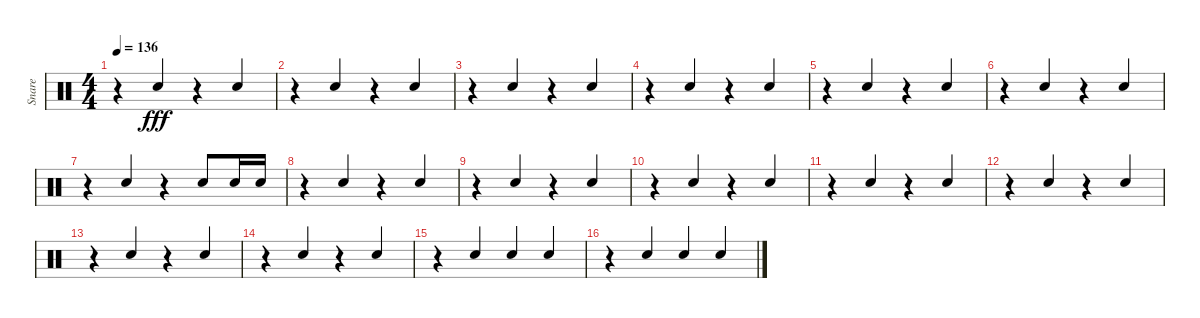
\track ("Snare" "Snare") {instrument percussion}
\staff {score}
\articulation defaults
\ts (4 4)
\tempo 136
\clef neutral
\ks c
r.4{dy fff} "Electric Snare (hit)".4{beam Up} r.4{beam merge} "Electric Snare (hit)".4{beam Up} |
r.4 "Electric Snare (hit)".4{beam Up} r.4{beam merge} "Electric Snare (hit)".4{beam Up} |
r.4 "Electric Snare (hit)".4{beam Up} r.4{beam merge} "Electric Snare (hit)".4{beam Up} |
r.4 "Electric Snare (hit)".4{beam Up} r.4{beam merge} "Electric Snare (hit)".4{beam Up} |
r.4 "Electric Snare (hit)".4{beam Up} r.4{beam merge} "Electric Snare (hit)".4{beam Up} |
r.4 "Electric Snare (hit)".4{beam Up} r.4{beam merge} "Electric Snare (hit)".4{beam Up} |
r.4{beam merge} "Electric Snare (hit)".4{beam Up} r.4{beam split} "Electric Snare (hit)".8{beam Up} "Electric Snare (hit)".16{beam Up} "Electric Snare (hit)".16{beam Up} |
r.4 "Electric Snare (hit)".4{beam Up} r.4{beam merge} "Electric Snare (hit)".4{beam Up} |
r.4 "Electric Snare (hit)".4{beam Up} r.4{beam merge} "Electric Snare (hit)".4{beam Up} |
r.4 "Electric Snare (hit)".4{beam Up} r.4{beam merge} "Electric Snare (hit)".4{beam Up} |
r.4 "Electric Snare (hit)".4{beam Up} r.4{beam merge} "Electric Snare (hit)".4{beam Up} |
r.4 "Electric Snare (hit)".4{beam Up} r.4{beam merge} "Electric Snare (hit)".4{beam Up} |
r.4 "Electric Snare (hit)".4{beam Up} r.4{beam merge} "Electric Snare (hit)".4{beam Up} |
r.4 "Electric Snare (hit)".4{beam Up} r.4{beam merge} "Electric Snare (hit)".4{beam Up} |
r.4{beam merge} "Electric Snare (hit)".4{beam Up} "Electric Snare (hit)".4{beam Up beam merge} "Electric Snare (hit)".4{beam Up} |
r.4{beam merge} "Electric Snare (hit)".4{beam Up} "Electric Snare (hit)".4{beam Up beam merge} "Electric Snare (hit)".4{beam Up}
